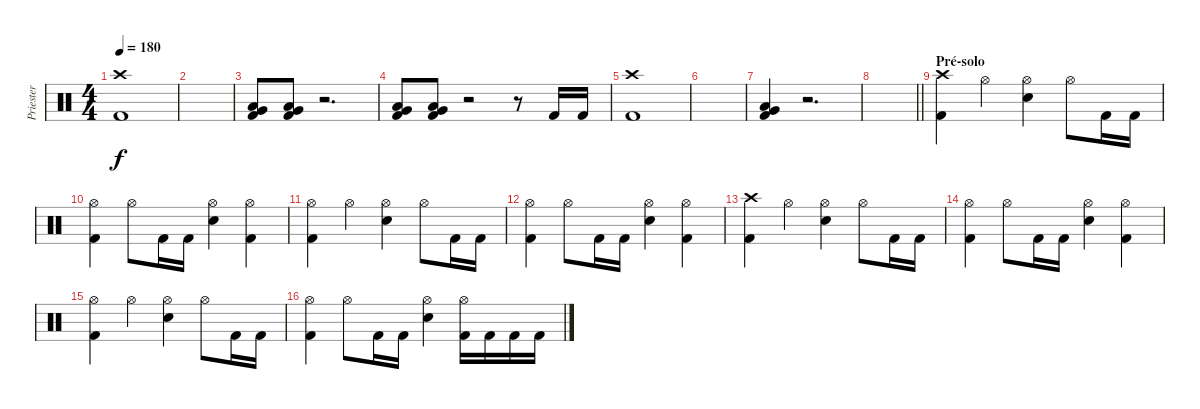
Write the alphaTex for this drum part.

\track ("Priester" "Priester") {instrument percussion}
\staff {score}
\articulation defaults
\ts (4 4)
\tempo 180
\clef neutral
\ks c
("Crash high (hit)" "Kick (hit) 2").1{dy f} |
|
("Very Low Tom (hit)" "Low Floor Tom (hit)" "Kick (hit) 2").8 ("Very Low Tom (hit)" "Low Floor Tom (hit)" "Kick (hit) 2").8 r.2{d} |
("Very Low Tom (hit)" "Low Floor Tom (hit)" "Kick (hit) 2").8 ("Very Low Tom (hit)" "Low Floor Tom (hit)" "Kick (hit) 2").8 r.2 r.8 "Kick (hit) 2".16 "Kick (hit) 2".16 |
("Crash high (hit)" "Kick (hit) 2").1 |
|
("Very Low Tom (hit)" "Low Floor Tom (hit)" "Kick (hit) 2").4 r.2{d} |
\barLineRight lightlight
|
\section ("" "Pré-solo")
("Crash high (hit)" "Kick (hit) 2").4 "Hi-Hat (open)".4 ("Hi-Hat (open)" "Electric Snare (hit)").4 "Hi-Hat (open)".8 "Kick (hit) 2".16 "Kick (hit) 2".16 |
("Hi-Hat (open)" "Kick (hit) 2").4 "Hi-Hat (open)".8 "Kick (hit) 2".16 "Kick (hit) 2".16 ("Hi-Hat (open)" "Electric Snare (hit)").4 ("Hi-Hat (open)" "Kick (hit) 2").4 |
("Hi-Hat (open)" "Kick (hit) 2").4 "Hi-Hat (open)".4 ("Hi-Hat (open)" "Electric Snare (hit)").4 "Hi-Hat (open)".8 "Kick (hit) 2".16 "Kick (hit) 2".16 |
("Hi-Hat (open)" "Kick (hit) 2").4 "Hi-Hat (open)".8 "Kick (hit) 2".16 "Kick (hit) 2".16 ("Hi-Hat (open)" "Electric Snare (hit)").4 ("Hi-Hat (open)" "Kick (hit) 2").4 |
("Crash high (hit)" "Kick (hit) 2").4 "Hi-Hat (open)".4 ("Hi-Hat (open)" "Electric Snare (hit)").4 "Hi-Hat (open)".8 "Kick (hit) 2".16 "Kick (hit) 2".16 |
("Hi-Hat (open)" "Kick (hit) 2").4 "Hi-Hat (open)".8 "Kick (hit) 2".16 "Kick (hit) 2".16 ("Hi-Hat (open)" "Electric Snare (hit)").4 ("Hi-Hat (open)" "Kick (hit) 2").4 |
("Hi-Hat (open)" "Kick (hit) 2").4 "Hi-Hat (open)".4 ("Hi-Hat (open)" "Electric Snare (hit)").4 "Hi-Hat (open)".8 "Kick (hit) 2".16 "Kick (hit) 2".16 |
("Hi-Hat (open)" "Kick (hit) 2").4 "Hi-Hat (open)".8 "Kick (hit) 2".16 "Kick (hit) 2".16 ("Hi-Hat (open)" "Electric Snare (hit)").4 ("Hi-Hat (open)" "Kick (hit) 2").16 "Kick (hit) 2".16 "Kick (hit) 2".16 "Kick (hit) 2".16
